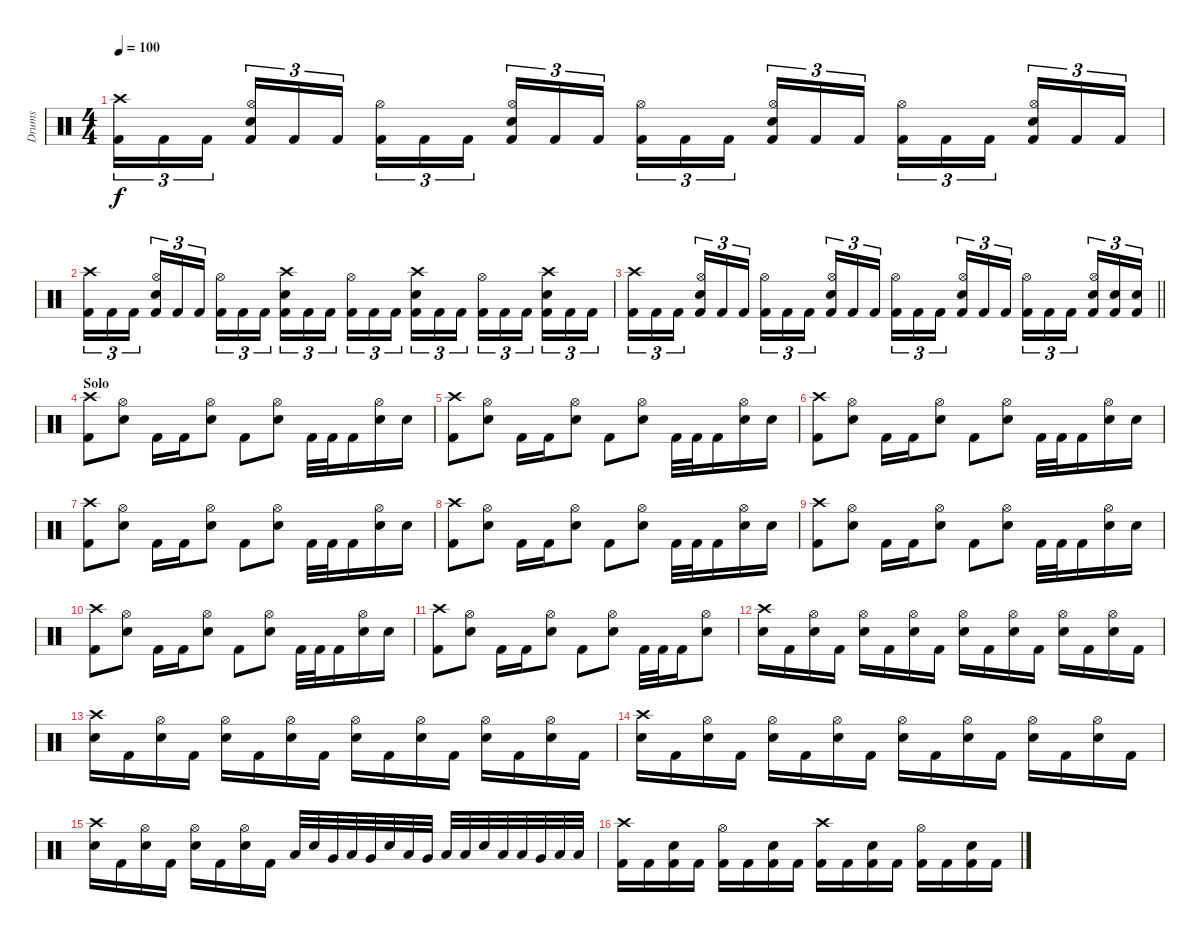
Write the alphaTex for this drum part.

\track ("Drums" "Drums") {instrument percussion}
\staff {score}
\articulation defaults
\ts (4 4)
\tempo 100
\clef neutral
\ks c
("Crash high (hit)" "Kick (hit) 2").16{tu (3 2) dy f} "Kick (hit) 2".16{tu (3 2)} "Kick (hit) 2".16{tu (3 2) beam splitsecondary} ("Hi-Hat (open)" "Snare (hit) 2" "Kick (hit) 2").16{tu (3 2)} "Kick (hit) 2".16{tu (3 2)} "Kick (hit) 2".16{tu (3 2)} ("Hi-Hat (open)" "Kick (hit) 2").16{tu (3 2)} "Kick (hit) 2".16{tu (3 2)} "Kick (hit) 2".16{tu (3 2) beam splitsecondary} ("Hi-Hat (open)" "Snare (hit) 2" "Kick (hit) 2").16{tu (3 2)} "Kick (hit) 2".16{tu (3 2)} "Kick (hit) 2".16{tu (3 2)} ("Hi-Hat (open)" "Kick (hit) 2").16{tu (3 2)} "Kick (hit) 2".16{tu (3 2)} "Kick (hit) 2".16{tu (3 2) beam splitsecondary} ("Hi-Hat (open)" "Snare (hit) 2" "Kick (hit) 2").16{tu (3 2)} "Kick (hit) 2".16{tu (3 2)} "Kick (hit) 2".16{tu (3 2)} ("Hi-Hat (open)" "Kick (hit) 2").16{tu (3 2)} "Kick (hit) 2".16{tu (3 2)} "Kick (hit) 2".16{tu (3 2) beam splitsecondary} ("Hi-Hat (open)" "Snare (hit) 2" "Kick (hit) 2").16{tu (3 2)} "Kick (hit) 2".16{tu (3 2)} "Kick (hit) 2".16{tu (3 2)} |
("Crash high (hit)" "Kick (hit) 2").16{tu (3 2)} "Kick (hit) 2".16{tu (3 2)} "Kick (hit) 2".16{tu (3 2) beam splitsecondary} ("Hi-Hat (open)" "Snare (hit) 2" "Kick (hit) 2").16{tu (3 2)} "Kick (hit) 2".16{tu (3 2)} "Kick (hit) 2".16{tu (3 2)} ("Hi-Hat (open)" "Kick (hit) 2").16{tu (3 2)} "Kick (hit) 2".16{tu (3 2)} "Kick (hit) 2".16{tu (3 2) beam splitsecondary} ("Crash high (hit)" "Snare (hit) 2" "Kick (hit) 2").16{tu (3 2)} "Kick (hit) 2".16{tu (3 2)} "Kick (hit) 2".16{tu (3 2)} ("Hi-Hat (open)" "Kick (hit) 2").16{tu (3 2)} "Kick (hit) 2".16{tu (3 2)} "Kick (hit) 2".16{tu (3 2) beam splitsecondary} ("Crash high (hit)" "Snare (hit) 2" "Kick (hit) 2").16{tu (3 2)} "Kick (hit) 2".16{tu (3 2)} "Kick (hit) 2".16{tu (3 2)} ("Hi-Hat (open)" "Kick (hit) 2").16{tu (3 2)} "Kick (hit) 2".16{tu (3 2)} "Kick (hit) 2".16{tu (3 2) beam splitsecondary} ("Crash high (hit)" "Snare (hit) 2" "Kick (hit) 2").16{tu (3 2)} "Kick (hit) 2".16{tu (3 2)} "Kick (hit) 2".16{tu (3 2)} |
\barLineRight lightlight
("Crash high (hit)" "Kick (hit) 2").16{tu (3 2)} "Kick (hit) 2".16{tu (3 2)} "Kick (hit) 2".16{tu (3 2) beam splitsecondary} ("Hi-Hat (open)" "Snare (hit) 2" "Kick (hit) 2").16{tu (3 2)} "Kick (hit) 2".16{tu (3 2)} "Kick (hit) 2".16{tu (3 2)} ("Hi-Hat (open)" "Kick (hit) 2").16{tu (3 2)} "Kick (hit) 2".16{tu (3 2)} "Kick (hit) 2".16{tu (3 2) beam splitsecondary} ("Hi-Hat (open)" "Snare (hit) 2" "Kick (hit) 2").16{tu (3 2)} "Kick (hit) 2".16{tu (3 2)} "Kick (hit) 2".16{tu (3 2)} ("Hi-Hat (open)" "Kick (hit) 2").16{tu (3 2)} "Kick (hit) 2".16{tu (3 2)} "Kick (hit) 2".16{tu (3 2) beam splitsecondary} ("Hi-Hat (open)" "Snare (hit) 2" "Kick (hit) 2").16{tu (3 2)} "Kick (hit) 2".16{tu (3 2)} "Kick (hit) 2".16{tu (3 2)} ("Hi-Hat (open)" "Kick (hit) 2").16{tu (3 2)} "Kick (hit) 2".16{tu (3 2)} "Kick (hit) 2".16{tu (3 2) beam splitsecondary} ("Hi-Hat (open)" "Snare (hit) 2" "Kick (hit) 2").16{tu (3 2)} ("Snare (hit) 2" "Kick (hit) 2").16{tu (3 2)} ("Snare (hit) 2" "Kick (hit) 2").16{tu (3 2)} |
\section ("" "Solo")
("Crash high (hit)" "Kick (hit) 2").8 ("Hi-Hat (open)" "Snare (hit) 2").8 "Kick (hit) 2".16 "Kick (hit) 2".16 ("Hi-Hat (open)" "Snare (hit) 2").8 "Kick (hit) 2".8 ("Hi-Hat (open)" "Snare (hit) 2").8 "Kick (hit) 2".32 "Kick (hit) 2".32 "Kick (hit) 2".16 ("Hi-Hat (open)" "Snare (hit) 2").16 "Snare (hit) 2".16 |
("Crash high (hit)" "Kick (hit) 2").8 ("Hi-Hat (open)" "Snare (hit) 2").8 "Kick (hit) 2".16 "Kick (hit) 2".16 ("Hi-Hat (open)" "Snare (hit) 2").8 "Kick (hit) 2".8 ("Hi-Hat (open)" "Snare (hit) 2").8 "Kick (hit) 2".32 "Kick (hit) 2".32 "Kick (hit) 2".16 ("Hi-Hat (open)" "Snare (hit) 2").16 "Snare (hit) 2".16 |
("Crash high (hit)" "Kick (hit) 2").8 ("Hi-Hat (open)" "Snare (hit) 2").8 "Kick (hit) 2".16 "Kick (hit) 2".16 ("Hi-Hat (open)" "Snare (hit) 2").8 "Kick (hit) 2".8 ("Hi-Hat (open)" "Snare (hit) 2").8 "Kick (hit) 2".32 "Kick (hit) 2".32 "Kick (hit) 2".16 ("Hi-Hat (open)" "Snare (hit) 2").16 "Snare (hit) 2".16 |
("Crash high (hit)" "Kick (hit) 2").8 ("Hi-Hat (open)" "Snare (hit) 2").8 "Kick (hit) 2".16 "Kick (hit) 2".16 ("Hi-Hat (open)" "Snare (hit) 2").8 "Kick (hit) 2".8 ("Hi-Hat (open)" "Snare (hit) 2").8 "Kick (hit) 2".32 "Kick (hit) 2".32 "Kick (hit) 2".16 ("Hi-Hat (open)" "Snare (hit) 2").16 "Snare (hit) 2".16 |
("Crash high (hit)" "Kick (hit) 2").8 ("Hi-Hat (open)" "Snare (hit) 2").8 "Kick (hit) 2".16 "Kick (hit) 2".16 ("Hi-Hat (open)" "Snare (hit) 2").8 "Kick (hit) 2".8 ("Hi-Hat (open)" "Snare (hit) 2").8 "Kick (hit) 2".32 "Kick (hit) 2".32 "Kick (hit) 2".16 ("Hi-Hat (open)" "Snare (hit) 2").16 "Snare (hit) 2".16 |
("Crash high (hit)" "Kick (hit) 2").8 ("Hi-Hat (open)" "Snare (hit) 2").8 "Kick (hit) 2".16 "Kick (hit) 2".16 ("Hi-Hat (open)" "Snare (hit) 2").8 "Kick (hit) 2".8 ("Hi-Hat (open)" "Snare (hit) 2").8 "Kick (hit) 2".32 "Kick (hit) 2".32 "Kick (hit) 2".16 ("Hi-Hat (open)" "Snare (hit) 2").16 "Snare (hit) 2".16 |
("Crash high (hit)" "Kick (hit) 2").8 ("Hi-Hat (open)" "Snare (hit) 2").8 "Kick (hit) 2".16 "Kick (hit) 2".16 ("Hi-Hat (open)" "Snare (hit) 2").8 "Kick (hit) 2".8 ("Hi-Hat (open)" "Snare (hit) 2").8 "Kick (hit) 2".32 "Kick (hit) 2".32 "Kick (hit) 2".16 ("Hi-Hat (open)" "Snare (hit) 2").16 "Snare (hit) 2".16 |
("Crash high (hit)" "Kick (hit) 2").8 ("Hi-Hat (open)" "Snare (hit) 2").8 "Kick (hit) 2".16 "Kick (hit) 2".16 ("Hi-Hat (open)" "Snare (hit) 2").8 "Kick (hit) 2".8 ("Hi-Hat (open)" "Snare (hit) 2").8 "Kick (hit) 2".32 "Kick (hit) 2".32 "Kick (hit) 2".16 ("Hi-Hat (open)" "Snare (hit) 2").8 |
("Crash high (hit)" "Snare (hit) 2").16 "Kick (hit) 2".16 ("Hi-Hat (open)" "Snare (hit) 2").16 "Kick (hit) 2".16 ("Hi-Hat (open)" "Snare (hit) 2").16 "Kick (hit) 2".16 ("Hi-Hat (open)" "Snare (hit) 2").16 "Kick (hit) 2".16 ("Hi-Hat (open)" "Snare (hit) 2").16 "Kick (hit) 2".16 ("Hi-Hat (open)" "Snare (hit) 2").16 "Kick (hit) 2".16 ("Hi-Hat (open)" "Snare (hit) 2").16 "Kick (hit) 2".16 ("Hi-Hat (open)" "Snare (hit) 2").16 "Kick (hit) 2".16 |
("Crash high (hit)" "Snare (hit) 2").16 "Kick (hit) 2".16 ("Hi-Hat (open)" "Snare (hit) 2").16 "Kick (hit) 2".16 ("Hi-Hat (open)" "Snare (hit) 2").16 "Kick (hit) 2".16 ("Hi-Hat (open)" "Snare (hit) 2").16 "Kick (hit) 2".16 ("Hi-Hat (open)" "Snare (hit) 2").16 "Kick (hit) 2".16 ("Hi-Hat (open)" "Snare (hit) 2").16 "Kick (hit) 2".16 ("Hi-Hat (open)" "Snare (hit) 2").16 "Kick (hit) 2".16 ("Hi-Hat (open)" "Snare (hit) 2").16 "Kick (hit) 2".16 |
("Crash high (hit)" "Snare (hit) 2").16 "Kick (hit) 2".16 ("Hi-Hat (open)" "Snare (hit) 2").16 "Kick (hit) 2".16 ("Hi-Hat (open)" "Snare (hit) 2").16 "Kick (hit) 2".16 ("Hi-Hat (open)" "Snare (hit) 2").16 "Kick (hit) 2".16 ("Hi-Hat (open)" "Snare (hit) 2").16 "Kick (hit) 2".16 ("Hi-Hat (open)" "Snare (hit) 2").16 "Kick (hit) 2".16 ("Hi-Hat (open)" "Snare (hit) 2").16 "Kick (hit) 2".16 ("Hi-Hat (open)" "Snare (hit) 2").16 "Kick (hit) 2".16 |
("Crash high (hit)" "Snare (hit) 2").16 "Kick (hit) 2".16 ("Hi-Hat (open)" "Snare (hit) 2").16 "Kick (hit) 2".16 ("Hi-Hat (open)" "Snare (hit) 2").16 "Kick (hit) 2".16 ("Hi-Hat (open)" "Snare (hit) 2").16 "Kick (hit) 2".16 "Low Tom (hit)".32 "Snare (hit) 2".32 "Very Low Tom (hit)".32 "Low Tom (hit)".32 "Very Low Tom (hit)".32 "Snare (hit) 2".32 "Low Tom (hit)".32 "Very Low Tom (hit)".32 "Low Floor Tom (hit)".32 "Low Floor Tom (hit)".32 "Snare (hit) 2".32 "Low Tom (hit)".32 "Low Tom (hit)".32 "Very Low Tom (hit)".32 "Low Floor Tom (hit)".32 "Low Floor Tom (hit)".32 |
("Crash high (hit)" "Kick (hit) 2").16 "Kick (hit) 2".16 ("Snare (hit) 2" "Kick (hit) 2").16 "Kick (hit) 2".16 ("Hi-Hat (open)" "Kick (hit) 2").16 "Kick (hit) 2".16 ("Snare (hit) 2" "Kick (hit) 2").16 "Kick (hit) 2".16 ("Crash high (hit)" "Kick (hit) 2").16 "Kick (hit) 2".16 ("Snare (hit) 2" "Kick (hit) 2").16 "Kick (hit) 2".16 ("Hi-Hat (open)" "Kick (hit) 2").16 "Kick (hit) 2".16 ("Snare (hit) 2" "Kick (hit) 2").16 "Kick (hit) 2".16
